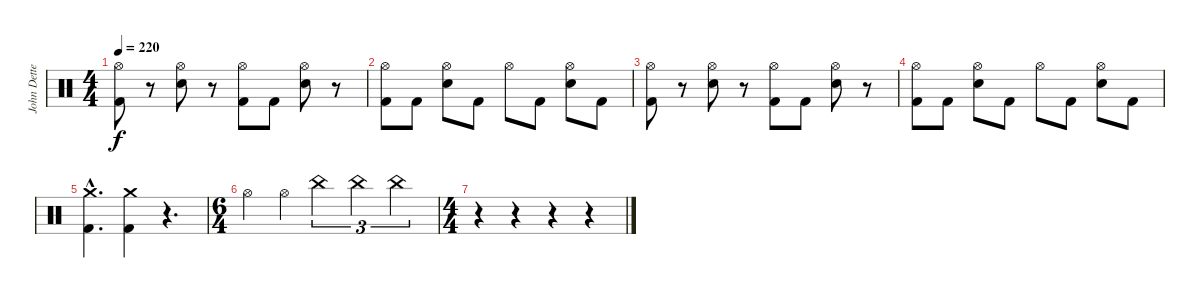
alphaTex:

\track ("John Dette" "John Dette") {instrument percussion}
\staff {score}
\articulation defaults
\ts (4 4)
\tempo 220
\clef neutral
\ks c
("Hi-Hat (open)" "Kick (hit) 2").8{dy f} r.8 ("Hi-Hat (open)" "Snare (hit) 2").8 r.8 ("Hi-Hat (open)" "Kick (hit) 2").8 "Kick (hit) 2".8 ("Hi-Hat (open)" "Snare (hit) 2").8 r.8 |
("Hi-Hat (open)" "Kick (hit) 2").8 "Kick (hit) 2".8 ("Hi-Hat (open)" "Snare (hit) 2").8 "Kick (hit) 2".8 "Hi-Hat (open)".8 "Kick (hit) 2".8 ("Hi-Hat (open)" "Snare (hit) 2").8 "Kick (hit) 2".8 |
("Hi-Hat (open)" "Kick (hit) 2").8 r.8 ("Hi-Hat (open)" "Snare (hit) 2").8 r.8 ("Hi-Hat (open)" "Kick (hit) 2").8 "Kick (hit) 2".8 ("Hi-Hat (open)" "Snare (hit) 2").8 r.8 |
("Hi-Hat (open)" "Kick (hit) 2").8 "Kick (hit) 2".8 ("Hi-Hat (open)" "Snare (hit) 2").8 "Kick (hit) 2".8 "Hi-Hat (open)".8 "Kick (hit) 2".8 ("Hi-Hat (open)" "Snare (hit) 2").8 "Kick (hit) 2".8 |
("Crash medium (hit)"{hac} "Kick (hit) 2"{hac}).4{d} ("Crash medium (hit)" "Kick (hit) 2").4 r.4{d} |
\ts (6 4)
"Hi-Hat (open)".4 "Hi-Hat (open)".4 "China (hit)".2{tu (3 2)} "China (hit)".2{tu (3 2)} "China (hit)".2{tu (3 2)} |
\ts (4 4)
r.4 r.4 r.4 r.4
